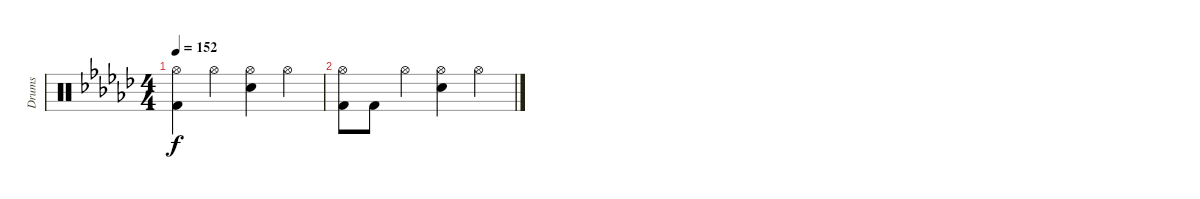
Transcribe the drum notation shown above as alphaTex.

\track ("Drums" "Drums") {instrument percussion}
\staff {score}
\articulation defaults
\ts (4 4)
\tempo 152
\clef neutral
\ks gb
("Hi-Hat (open)" "Kick (hit) 2").4{dy f} "Hi-Hat (open)".4 ("Hi-Hat (open)" "Electric Snare (hit)").4 "Hi-Hat (open)".4 |
("Hi-Hat (open)" "Kick (hit) 2").8 "Kick (hit) 2".8 "Hi-Hat (open)".4 ("Hi-Hat (open)" "Electric Snare (hit)").4 "Hi-Hat (open)".4
